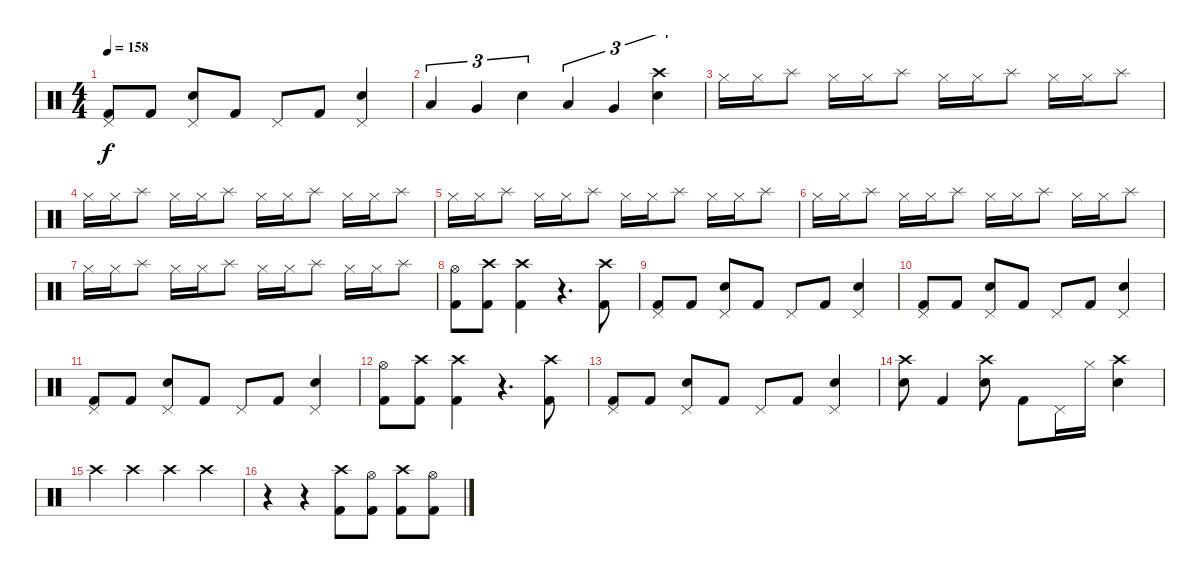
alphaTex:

\track "" {instrument percussion}
\staff {score}
\articulation defaults
\ts (4 4)
\tempo 158
\clef neutral
\ks c
("Pedal Hi-Hat (hit)" "Kick (hit) 2").8{dy f} "Kick (hit) 2".8 ("Pedal Hi-Hat (hit)" "Electric Snare (hit)").8 "Kick (hit) 2".8 "Pedal Hi-Hat (hit)".8 "Kick (hit) 2".8 ("Pedal Hi-Hat (hit)" "Electric Snare (hit)").4 |
"Low Floor Tom (hit)".4{tu (3 2)} "Very Low Tom (hit)".4{tu (3 2)} "Electric Snare (hit)".4{tu (3 2)} "Low Floor Tom (hit)".4{tu (3 2)} "Very Low Tom (hit)".4{tu (3 2)} ("Crash high (hit)" "Electric Snare (hit)").4{tu (3 2)} |
"Hi-Hat (closed)".16 "Hi-Hat (closed)".16 "Splash (hit)".8 "Hi-Hat (closed)".16 "Hi-Hat (closed)".16 "Splash (hit)".8 "Hi-Hat (closed)".16 "Hi-Hat (closed)".16 "Splash (hit)".8 "Hi-Hat (closed)".16 "Hi-Hat (closed)".16 "Splash (hit)".8 |
"Hi-Hat (closed)".16 "Hi-Hat (closed)".16 "Splash (hit)".8 "Hi-Hat (closed)".16 "Hi-Hat (closed)".16 "Splash (hit)".8 "Hi-Hat (closed)".16 "Hi-Hat (closed)".16 "Splash (hit)".8 "Hi-Hat (closed)".16 "Hi-Hat (closed)".16 "Splash (hit)".8 |
"Hi-Hat (closed)".16 "Hi-Hat (closed)".16 "Splash (hit)".8 "Hi-Hat (closed)".16 "Hi-Hat (closed)".16 "Splash (hit)".8 "Hi-Hat (closed)".16 "Hi-Hat (closed)".16 "Splash (hit)".8 "Hi-Hat (closed)".16 "Hi-Hat (closed)".16 "Splash (hit)".8 |
"Hi-Hat (closed)".16 "Hi-Hat (closed)".16 "Splash (hit)".8 "Hi-Hat (closed)".16 "Hi-Hat (closed)".16 "Splash (hit)".8 "Hi-Hat (closed)".16 "Hi-Hat (closed)".16 "Splash (hit)".8 "Hi-Hat (closed)".16 "Hi-Hat (closed)".16 "Splash (hit)".8 |
"Hi-Hat (closed)".16 "Hi-Hat (closed)".16 "Splash (hit)".8 "Hi-Hat (closed)".16 "Hi-Hat (closed)".16 "Splash (hit)".8 "Hi-Hat (closed)".16 "Hi-Hat (closed)".16 "Splash (hit)".8 "Hi-Hat (closed)".16 "Hi-Hat (closed)".16 "Splash (hit)".8 |
("Hi-Hat (open)" "Kick (hit) 2").8 ("Crash high (hit)" "Kick (hit) 2").8 ("Crash high (hit)" "Kick (hit) 2").4 r.4{d} ("Crash high (hit)" "Kick (hit) 2").8 |
("Pedal Hi-Hat (hit)" "Kick (hit) 2").8 "Kick (hit) 2".8 ("Pedal Hi-Hat (hit)" "Electric Snare (hit)").8 "Kick (hit) 2".8 "Pedal Hi-Hat (hit)".8 "Kick (hit) 2".8 ("Pedal Hi-Hat (hit)" "Electric Snare (hit)").4 |
("Pedal Hi-Hat (hit)" "Kick (hit) 2").8 "Kick (hit) 2".8 ("Pedal Hi-Hat (hit)" "Electric Snare (hit)").8 "Kick (hit) 2".8 "Pedal Hi-Hat (hit)".8 "Kick (hit) 2".8 ("Pedal Hi-Hat (hit)" "Electric Snare (hit)").4 |
("Pedal Hi-Hat (hit)" "Kick (hit) 2").8 "Kick (hit) 2".8 ("Pedal Hi-Hat (hit)" "Electric Snare (hit)").8 "Kick (hit) 2".8 "Pedal Hi-Hat (hit)".8 "Kick (hit) 2".8 ("Pedal Hi-Hat (hit)" "Electric Snare (hit)").4 |
("Hi-Hat (open)" "Kick (hit) 2").8 ("Crash high (hit)" "Kick (hit) 2").8 ("Crash high (hit)" "Kick (hit) 2").4 r.4{d} ("Crash high (hit)" "Kick (hit) 2").8 |
("Pedal Hi-Hat (hit)" "Kick (hit) 2").8 "Kick (hit) 2".8 ("Pedal Hi-Hat (hit)" "Electric Snare (hit)").8 "Kick (hit) 2".8 "Pedal Hi-Hat (hit)".8 "Kick (hit) 2".8 ("Pedal Hi-Hat (hit)" "Electric Snare (hit)").4 |
("Crash high (hit)" "Electric Snare (hit)").8 "Kick (hit) 2".4 ("Crash high (hit)" "Electric Snare (hit)").8 "Kick (hit) 2".8 "Pedal Hi-Hat (hit)".16 "Hi-Hat (closed)".16 ("Crash high (hit)" "Electric Snare (hit)").4 |
"Crash high (hit)".4 "Crash high (hit)".4 "Crash high (hit)".4 "Crash high (hit)".4 |
r.4 r.4 ("Crash high (hit)" "Kick (hit) 2").8 ("Hi-Hat (open)" "Kick (hit) 2").8 ("Crash high (hit)" "Kick (hit) 2").8 ("Hi-Hat (open)" "Kick (hit) 2").8
